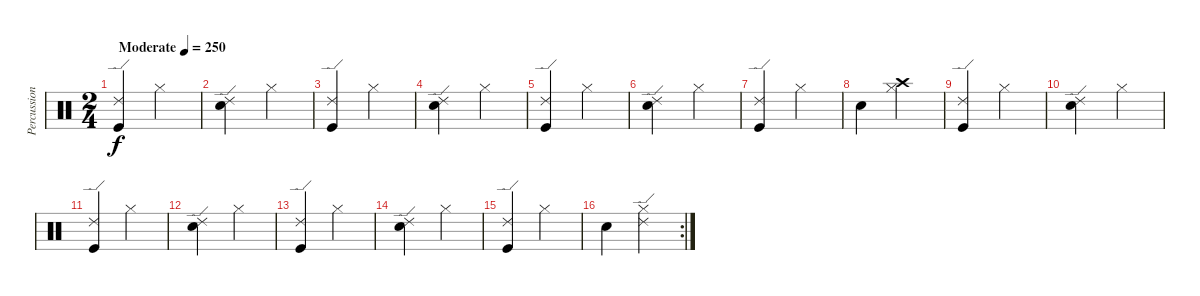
\track ("Percussion" "Percussion") {instrument percussion}
\staff {score}
\articulation defaults
\ts (2 4)
\tempo (250 "Moderate")
\clef neutral
\ks c
("Ride (edge) 2" "Kick (hit)").4{dy f} "Hi-Hat (closed)".4 |
("Ride (edge) 2" "Snare (hit) 2").4 "Hi-Hat (closed)".4 |
("Ride (edge) 2" "Kick (hit)").4 "Hi-Hat (closed)".4 |
("Ride (edge) 2" "Snare (hit) 2").4 "Hi-Hat (closed)".4 |
("Ride (edge) 2" "Kick (hit)").4 "Hi-Hat (closed)".4 |
("Ride (edge) 2" "Snare (hit) 2").4 "Hi-Hat (closed)".4 |
("Ride (edge) 2" "Kick (hit)").4 "Hi-Hat (closed)".4 |
"Snare (hit) 2".4 ("Crash high (hit)" "Hi-Hat (closed)").4 |
("Ride (edge) 2" "Kick (hit)").4 "Hi-Hat (closed)".4 |
("Ride (edge) 2" "Snare (hit) 2").4 "Hi-Hat (closed)".4 |
("Ride (edge) 2" "Kick (hit)").4 "Hi-Hat (closed)".4 |
("Ride (edge) 2" "Snare (hit) 2").4 "Hi-Hat (closed)".4 |
("Ride (edge) 2" "Kick (hit)").4 "Hi-Hat (closed)".4 |
("Ride (edge) 2" "Snare (hit) 2").4 "Hi-Hat (closed)".4 |
("Ride (edge) 2" "Kick (hit)").4 "Hi-Hat (closed)".4 |
\rc 2 "Snare (hit) 2".4
("Ride (edge) 2" "Hi-Hat (closed)").4
